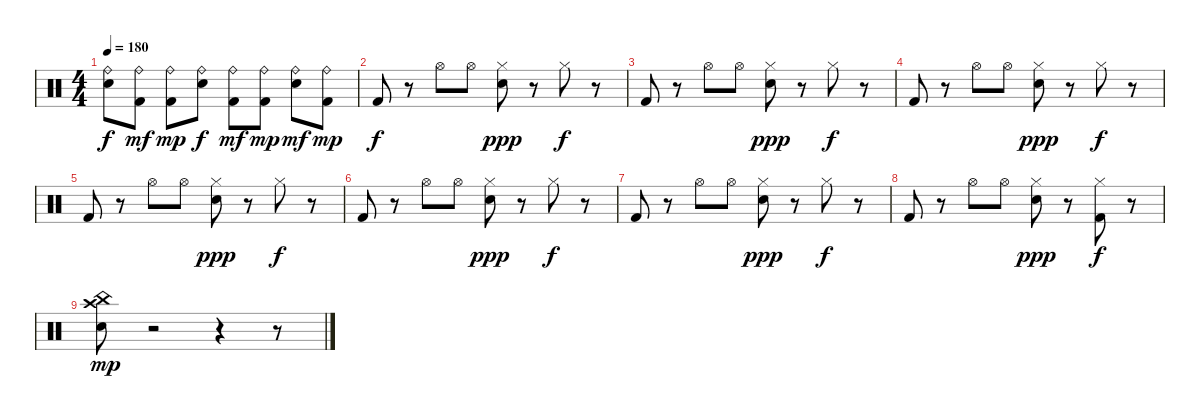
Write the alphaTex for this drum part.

\track "" {instrument percussion}
\staff {score}
\articulation defaults
\ts (4 4)
\tempo 180
\clef neutral
\ks c
("Ride (bell)" "Snare (hit) 2").8{dy f} ("Ride (bell)" "Kick (hit) 2").8{dy mf} ("Ride (bell)" "Kick (hit) 2").8{dy mp} ("Ride (bell)" "Snare (hit) 2").8{dy f} ("Ride (bell)" "Kick (hit) 2").8{dy mf} ("Ride (bell)" "Kick (hit) 2").8{dy mp} ("Ride (bell)" "Snare (hit) 2").8{dy mf} ("Ride (bell)" "Kick (hit) 2").8{dy mp} |
"Kick (hit) 2".8{dy f} r.8 "Hi-Hat (open)".8 "Hi-Hat (open)".8 ("Hi-Hat (closed)" "Snare (hit) 2").8{dy ppp} r.8 "Hi-Hat (closed)".8{dy f} r.8 |
"Kick (hit) 2".8 r.8 "Hi-Hat (open)".8 "Hi-Hat (open)".8 ("Hi-Hat (closed)" "Snare (hit) 2").8{dy ppp} r.8 "Hi-Hat (closed)".8{dy f} r.8 |
"Kick (hit) 2".8 r.8 "Hi-Hat (open)".8 "Hi-Hat (open)".8 ("Hi-Hat (closed)" "Snare (hit) 2").8{dy ppp} r.8 "Hi-Hat (closed)".8{dy f} r.8 |
"Kick (hit) 2".8 r.8 "Hi-Hat (open)".8 "Hi-Hat (open)".8 ("Hi-Hat (closed)" "Snare (hit) 2").8{dy ppp} r.8 "Hi-Hat (closed)".8{dy f} r.8 |
"Kick (hit) 2".8 r.8 "Hi-Hat (open)".8 "Hi-Hat (open)".8 ("Hi-Hat (closed)" "Snare (hit) 2").8{dy ppp} r.8 "Hi-Hat (closed)".8{dy f} r.8 |
"Kick (hit) 2".8 r.8 "Hi-Hat (open)".8 "Hi-Hat (open)".8 ("Hi-Hat (closed)" "Snare (hit) 2").8{dy ppp} r.8 "Hi-Hat (closed)".8{dy f} r.8 |
"Kick (hit) 2".8 r.8 "Hi-Hat (open)".8 "Hi-Hat (open)".8 ("Hi-Hat (closed)" "Snare (hit) 2").8{dy ppp} r.8 ("Kick (hit) 2" "Hi-Hat (closed)").8{dy f} r.8 |
("China (hit)" "Crash high (hit)" "Snare (hit) 2").8{dy mp} r.2 r.4 r.8
